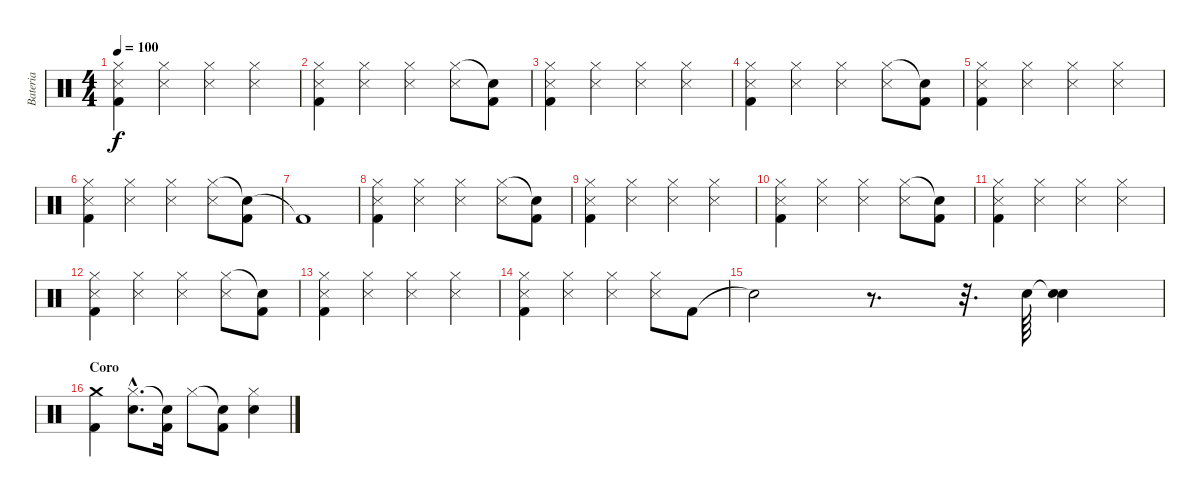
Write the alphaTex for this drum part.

\track ("Bateria" "Bateria") {instrument percussion}
\staff {score}
\articulation defaults
\ts (4 4)
\tempo 100
\clef neutral
\ks c
("Hi-Hat (closed)" "Snare (side stick) 3" "Kick (hit) 2").4{dy f} ("Hi-Hat (closed)" "Snare (side stick) 3").4 ("Hi-Hat (closed)" "Snare (side stick) 3").4 ("Hi-Hat (closed)" "Snare (side stick) 3").4 |
("Hi-Hat (closed)" "Snare (side stick) 3" "Kick (hit) 2").4 ("Hi-Hat (closed)" "Snare (side stick) 3").4 ("Hi-Hat (closed)" "Snare (side stick) 3").4 ("Hi-Hat (closed)" "Snare (side stick) 3").8 ("Snare (hit)"{t} "Kick (hit) 2").8 |
("Hi-Hat (closed)" "Snare (side stick) 3" "Kick (hit) 2").4 ("Hi-Hat (closed)" "Snare (side stick) 3").4 ("Hi-Hat (closed)" "Snare (side stick) 3").4 ("Hi-Hat (closed)" "Snare (side stick) 3").4 |
("Hi-Hat (closed)" "Snare (side stick) 3" "Kick (hit) 2").4 ("Hi-Hat (closed)" "Snare (side stick) 3").4 ("Hi-Hat (closed)" "Snare (side stick) 3").4 ("Hi-Hat (closed)" "Snare (side stick) 3").8 ("Snare (hit)"{t} "Kick (hit) 2").8 |
("Hi-Hat (closed)" "Snare (side stick) 3" "Kick (hit) 2").4 ("Hi-Hat (closed)" "Snare (side stick) 3").4 ("Hi-Hat (closed)" "Snare (side stick) 3").4 ("Hi-Hat (closed)" "Snare (side stick) 3").4 |
("Hi-Hat (closed)" "Snare (side stick) 3" "Kick (hit) 2").4 ("Hi-Hat (closed)" "Snare (side stick) 3").4 ("Hi-Hat (closed)" "Snare (side stick) 3").4 ("Hi-Hat (closed)" "Snare (side stick) 3").8 ("Snare (hit)"{t} "Kick (hit) 2").8 |
"Kick (hit) 2"{t}.1 |
("Hi-Hat (closed)" "Snare (side stick) 3" "Kick (hit) 2").4 ("Hi-Hat (closed)" "Snare (side stick) 3").4 ("Hi-Hat (closed)" "Snare (side stick) 3").4 ("Hi-Hat (closed)" "Snare (side stick) 3").8 ("Snare (hit)"{t} "Kick (hit) 2").8 |
("Hi-Hat (closed)" "Snare (side stick) 3" "Kick (hit) 2").4 ("Hi-Hat (closed)" "Snare (side stick) 3").4 ("Hi-Hat (closed)" "Snare (side stick) 3").4 ("Hi-Hat (closed)" "Snare (side stick) 3").4 |
("Hi-Hat (closed)" "Snare (side stick) 3" "Kick (hit) 2").4 ("Hi-Hat (closed)" "Snare (side stick) 3").4 ("Hi-Hat (closed)" "Snare (side stick) 3").4 ("Hi-Hat (closed)" "Snare (side stick) 3").8 ("Snare (hit)"{t} "Kick (hit) 2").8 |
("Hi-Hat (closed)" "Snare (side stick) 3" "Kick (hit) 2").4 ("Hi-Hat (closed)" "Snare (side stick) 3").4 ("Hi-Hat (closed)" "Snare (side stick) 3").4 ("Hi-Hat (closed)" "Snare (side stick) 3").4 |
("Hi-Hat (closed)" "Snare (side stick) 3" "Kick (hit) 2").4 ("Hi-Hat (closed)" "Snare (side stick) 3").4 ("Hi-Hat (closed)" "Snare (side stick) 3").4 ("Hi-Hat (closed)" "Snare (side stick) 3").8 ("Snare (hit)"{t} "Kick (hit) 2").8 |
("Hi-Hat (closed)" "Snare (side stick) 3" "Kick (hit) 2").4 ("Hi-Hat (closed)" "Snare (side stick) 3").4 ("Hi-Hat (closed)" "Snare (side stick) 3").4 ("Hi-Hat (closed)" "Snare (side stick) 3").4 |
("Hi-Hat (closed)" "Snare (side stick) 3" "Kick (hit) 2").4 ("Hi-Hat (closed)" "Snare (side stick) 3").4 ("Hi-Hat (closed)" "Snare (side stick) 3").4 ("Hi-Hat (closed)" "Snare (side stick) 3").8 "Kick (hit) 2".8 |
"Snare (hit)"{t}.2 r.8{d} r.32{d} "Electric Snare (hit)".64 ("Electric Snare (hit)"{t} "Electric Snare (hit)").4 |
\section ("" "Coro")
("Crash medium (hit)" "Kick (hit) 2").4 ("Hi-Hat (closed)"{hac} "Electric Snare (hit)"{hac}).8{d} ("Snare (hit)"{t} "Kick (hit) 2").16 "Hi-Hat (closed)".8 ("Snare (hit)"{t} "Kick (hit) 2").8 ("Hi-Hat (closed)" "Electric Snare (hit)").4
